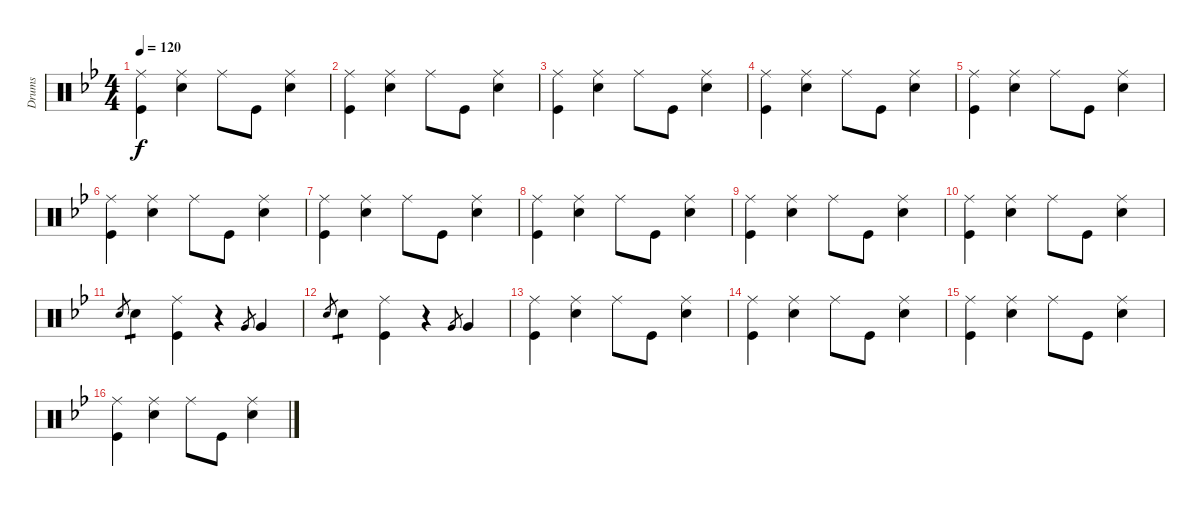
\track ("Drums" "Drums") {instrument percussion}
\staff {score}
\articulation defaults
\ts (4 4)
\tempo 120
\clef neutral
\ks bb
("Ride (middle)" "Kick (hit)").4{dy f} ("Ride (middle)" "Snare (hit) 2").4 "Ride (middle)".8 "Kick (hit)".8 ("Ride (middle)" "Snare (hit) 2").4 |
("Ride (middle)" "Kick (hit)").4 ("Ride (middle)" "Snare (hit) 2").4 "Ride (middle)".8 "Kick (hit)".8 ("Ride (middle)" "Snare (hit) 2").4 |
("Ride (middle)" "Kick (hit)").4 ("Ride (middle)" "Snare (hit) 2").4 "Ride (middle)".8 "Kick (hit)".8 ("Ride (middle)" "Snare (hit) 2").4 |
("Ride (middle)" "Kick (hit)").4 ("Ride (middle)" "Snare (hit) 2").4 "Ride (middle)".8 "Kick (hit)".8 ("Ride (middle)" "Snare (hit) 2").4 |
("Ride (middle)" "Kick (hit)").4 ("Ride (middle)" "Snare (hit) 2").4 "Ride (middle)".8 "Kick (hit)".8 ("Ride (middle)" "Snare (hit) 2").4 |
("Ride (middle)" "Kick (hit)").4 ("Ride (middle)" "Snare (hit) 2").4 "Ride (middle)".8 "Kick (hit)".8 ("Ride (middle)" "Snare (hit) 2").4 |
("Ride (middle)" "Kick (hit)").4 ("Ride (middle)" "Snare (hit) 2").4 "Ride (middle)".8 "Kick (hit)".8 ("Ride (middle)" "Snare (hit) 2").4 |
("Ride (middle)" "Kick (hit)").4 ("Ride (middle)" "Snare (hit) 2").4 "Ride (middle)".8 "Kick (hit)".8 ("Ride (middle)" "Snare (hit) 2").4 |
("Ride (middle)" "Kick (hit)").4 ("Ride (middle)" "Snare (hit) 2").4 "Ride (middle)".8 "Kick (hit)".8 ("Ride (middle)" "Snare (hit) 2").4 |
("Ride (middle)" "Kick (hit)").4 ("Ride (middle)" "Snare (hit) 2").4 "Ride (middle)".8 "Kick (hit)".8 ("Ride (middle)" "Snare (hit) 2").4 |
"Snare (hit) 2".8{gr} "Snare (hit) 2".4{tp 1} ("Ride (middle)" "Kick (hit)").4 r.4 "Very Low Tom (hit)".8{gr} "Very Low Tom (hit)".4 |
"Snare (hit) 2".8{gr} "Snare (hit) 2".4{tp 1} ("Ride (middle)" "Kick (hit)").4 r.4 "Very Low Tom (hit)".8{gr} "Very Low Tom (hit)".4 |
("Ride (middle)" "Kick (hit)").4 ("Ride (middle)" "Snare (hit) 2").4 "Ride (middle)".8 "Kick (hit)".8 ("Ride (middle)" "Snare (hit) 2").4 |
("Ride (middle)" "Kick (hit)").4 ("Ride (middle)" "Snare (hit) 2").4 "Ride (middle)".8 "Kick (hit)".8 ("Ride (middle)" "Snare (hit) 2").4 |
("Ride (middle)" "Kick (hit)").4 ("Ride (middle)" "Snare (hit) 2").4 "Ride (middle)".8 "Kick (hit)".8 ("Ride (middle)" "Snare (hit) 2").4 |
("Ride (middle)" "Kick (hit)").4 ("Ride (middle)" "Snare (hit) 2").4 "Ride (middle)".8 "Kick (hit)".8 ("Ride (middle)" "Snare (hit) 2").4
